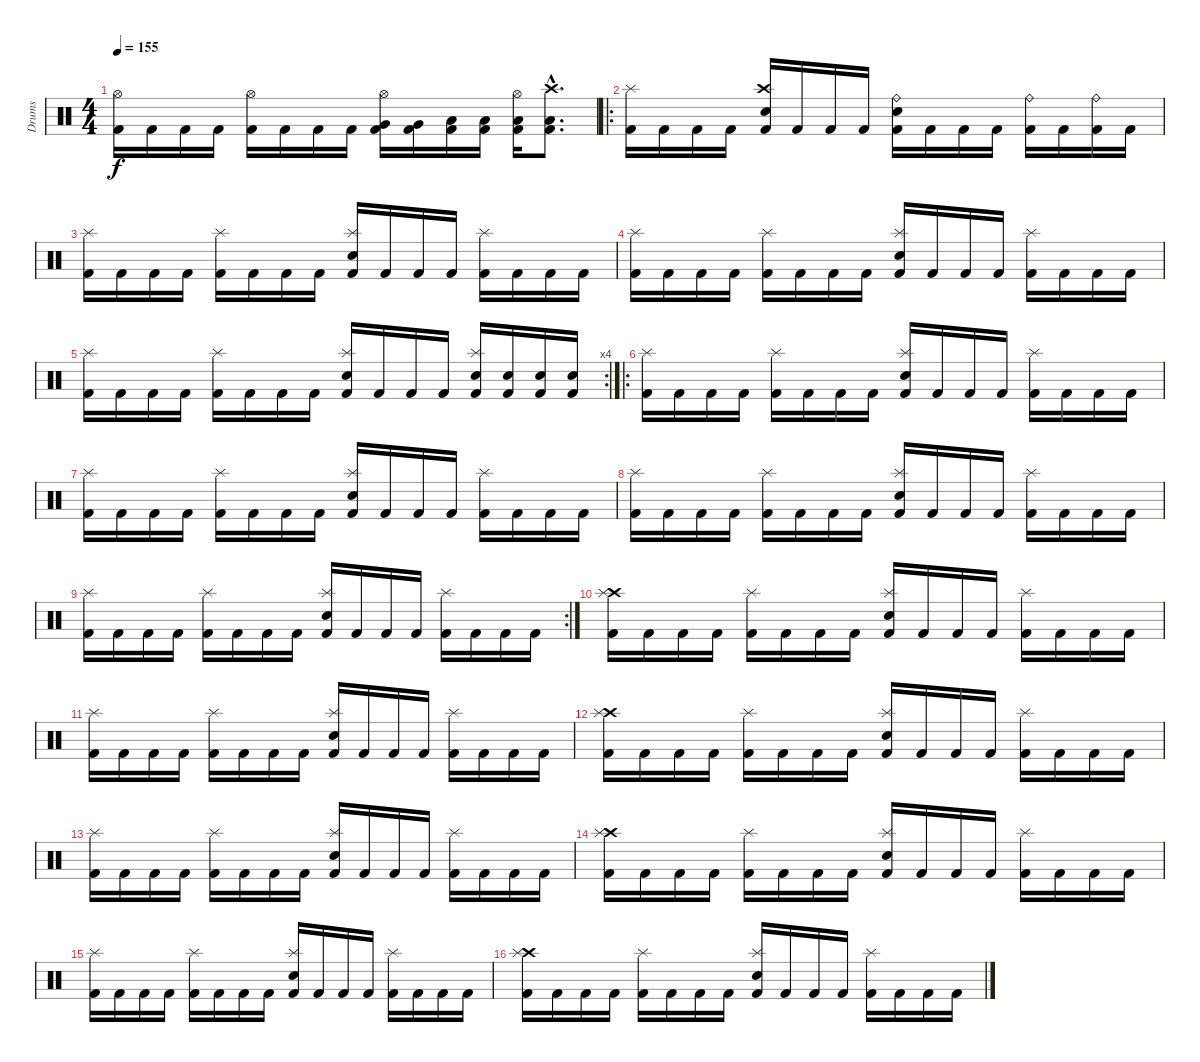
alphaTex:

\track ("Drums" "Drums") {instrument percussion}
\staff {score}
\articulation defaults
\ts (4 4)
\tempo 155
\clef neutral
\ks c
("Hi-Hat (open)" "Kick (hit) 2").16{dy f} "Kick (hit) 2".16 "Kick (hit) 2".16 "Kick (hit) 2".16 ("Hi-Hat (open)" "Kick (hit) 2").16 "Kick (hit) 2".16 "Kick (hit) 2".16 "Kick (hit) 2".16 ("Hi-Hat (open)" "Very Low Tom (hit)" "Kick (hit) 2").16 ("Very Low Tom (hit)" "Kick (hit) 2").16 ("Low Tom (hit)" "Kick (hit) 2").16 ("Low Tom (hit)" "Kick (hit) 2").16 ("Hi-Hat (open)" "Low Floor Tom (hit)" "Kick (hit) 2").16 ("Crash high (hit)"{hac} "Low Floor Tom (hit)"{hac} "Kick (hit) 2"{hac}).8{d} |
\ro
("Splash (hit)" "Kick (hit) 2").16 "Kick (hit) 2".16 "Kick (hit) 2".16 "Kick (hit) 2".16 ("Crash high (hit)" "Electric Snare (hit)" "Kick (hit) 2").16 "Kick (hit) 2".16 "Kick (hit) 2".16 "Kick (hit) 2".16 ("Ride (bell)" "Electric Snare (hit)" "Kick (hit) 2").16 "Kick (hit) 2".16 "Kick (hit) 2".16 "Kick (hit) 2".16 ("Ride (bell)" "Kick (hit) 2").16 "Kick (hit) 2".16 ("Ride (bell)" "Kick (hit) 2").16 "Kick (hit) 2".16 |
("Splash (hit)" "Kick (hit) 2").16 "Kick (hit) 2".16 "Kick (hit) 2".16 "Kick (hit) 2".16 ("Splash (hit)" "Kick (hit) 2").16 "Kick (hit) 2".16 "Kick (hit) 2".16 "Kick (hit) 2".16 ("Splash (hit)" "Electric Snare (hit)" "Kick (hit) 2").16 "Kick (hit) 2".16 "Kick (hit) 2".16 "Kick (hit) 2".16 ("Splash (hit)" "Kick (hit) 2").16 "Kick (hit) 2".16 "Kick (hit) 2".16 "Kick (hit) 2".16 |
("Splash (hit)" "Kick (hit) 2").16 "Kick (hit) 2".16 "Kick (hit) 2".16 "Kick (hit) 2".16 ("Splash (hit)" "Kick (hit) 2").16 "Kick (hit) 2".16 "Kick (hit) 2".16 "Kick (hit) 2".16 ("Splash (hit)" "Electric Snare (hit)" "Kick (hit) 2").16 "Kick (hit) 2".16 "Kick (hit) 2".16 "Kick (hit) 2".16 ("Splash (hit)" "Kick (hit) 2").16 "Kick (hit) 2".16 "Kick (hit) 2".16 "Kick (hit) 2".16 |
\rc 4
("Splash (hit)" "Kick (hit) 2").16 "Kick (hit) 2".16 "Kick (hit) 2".16 "Kick (hit) 2".16 ("Splash (hit)" "Kick (hit) 2").16 "Kick (hit) 2".16 "Kick (hit) 2".16 "Kick (hit) 2".16 ("Splash (hit)" "Electric Snare (hit)" "Kick (hit) 2").16 "Kick (hit) 2".16 "Kick (hit) 2".16 "Kick (hit) 2".16 ("Splash (hit)" "Electric Snare (hit)" "Kick (hit) 2").16 ("Electric Snare (hit)" "Kick (hit) 2").16 ("Electric Snare (hit)" "Kick (hit) 2").16 ("Electric Snare (hit)" "Kick (hit) 2").16 |
\ro
("Splash (hit)" "Kick (hit) 2").16 "Kick (hit) 2".16 "Kick (hit) 2".16 "Kick (hit) 2".16 ("Splash (hit)" "Kick (hit) 2").16 "Kick (hit) 2".16 "Kick (hit) 2".16 "Kick (hit) 2".16 ("Splash (hit)" "Electric Snare (hit)" "Kick (hit) 2").16 "Kick (hit) 2".16 "Kick (hit) 2".16 "Kick (hit) 2".16 ("Splash (hit)" "Kick (hit) 2").16 "Kick (hit) 2".16 "Kick (hit) 2".16 "Kick (hit) 2".16 |
("Splash (hit)" "Kick (hit) 2").16 "Kick (hit) 2".16 "Kick (hit) 2".16 "Kick (hit) 2".16 ("Splash (hit)" "Kick (hit) 2").16 "Kick (hit) 2".16 "Kick (hit) 2".16 "Kick (hit) 2".16 ("Splash (hit)" "Electric Snare (hit)" "Kick (hit) 2").16 "Kick (hit) 2".16 "Kick (hit) 2".16 "Kick (hit) 2".16 ("Splash (hit)" "Kick (hit) 2").16 "Kick (hit) 2".16 "Kick (hit) 2".16 "Kick (hit) 2".16 |
("Splash (hit)" "Kick (hit) 2").16 "Kick (hit) 2".16 "Kick (hit) 2".16 "Kick (hit) 2".16 ("Splash (hit)" "Kick (hit) 2").16 "Kick (hit) 2".16 "Kick (hit) 2".16 "Kick (hit) 2".16 ("Splash (hit)" "Electric Snare (hit)" "Kick (hit) 2").16 "Kick (hit) 2".16 "Kick (hit) 2".16 "Kick (hit) 2".16 ("Splash (hit)" "Kick (hit) 2").16 "Kick (hit) 2".16 "Kick (hit) 2".16 "Kick (hit) 2".16 |
\rc 2
("Splash (hit)" "Kick (hit) 2").16 "Kick (hit) 2".16 "Kick (hit) 2".16 "Kick (hit) 2".16 ("Splash (hit)" "Kick (hit) 2").16 "Kick (hit) 2".16 "Kick (hit) 2".16 "Kick (hit) 2".16 ("Splash (hit)" "Electric Snare (hit)" "Kick (hit) 2").16 "Kick (hit) 2".16 "Kick (hit) 2".16 "Kick (hit) 2".16 ("Splash (hit)" "Kick (hit) 2").16 "Kick (hit) 2".16 "Kick (hit) 2".16 "Kick (hit) 2".16 |
("Crash high (hit)" "Splash (hit)" "Kick (hit) 2").16 "Kick (hit) 2".16 "Kick (hit) 2".16 "Kick (hit) 2".16 ("Splash (hit)" "Kick (hit) 2").16 "Kick (hit) 2".16 "Kick (hit) 2".16 "Kick (hit) 2".16 ("Splash (hit)" "Electric Snare (hit)" "Kick (hit) 2").16 "Kick (hit) 2".16 "Kick (hit) 2".16 "Kick (hit) 2".16 ("Splash (hit)" "Kick (hit) 2").16 "Kick (hit) 2".16 "Kick (hit) 2".16 "Kick (hit) 2".16 |
("Splash (hit)" "Kick (hit) 2").16 "Kick (hit) 2".16 "Kick (hit) 2".16 "Kick (hit) 2".16 ("Splash (hit)" "Kick (hit) 2").16 "Kick (hit) 2".16 "Kick (hit) 2".16 "Kick (hit) 2".16 ("Splash (hit)" "Electric Snare (hit)" "Kick (hit) 2").16 "Kick (hit) 2".16 "Kick (hit) 2".16 "Kick (hit) 2".16 ("Splash (hit)" "Kick (hit) 2").16 "Kick (hit) 2".16 "Kick (hit) 2".16 "Kick (hit) 2".16 |
("Crash high (hit)" "Splash (hit)" "Kick (hit) 2").16 "Kick (hit) 2".16 "Kick (hit) 2".16 "Kick (hit) 2".16 ("Splash (hit)" "Kick (hit) 2").16 "Kick (hit) 2".16 "Kick (hit) 2".16 "Kick (hit) 2".16 ("Splash (hit)" "Electric Snare (hit)" "Kick (hit) 2").16 "Kick (hit) 2".16 "Kick (hit) 2".16 "Kick (hit) 2".16 ("Splash (hit)" "Kick (hit) 2").16 "Kick (hit) 2".16 "Kick (hit) 2".16 "Kick (hit) 2".16 |
("Splash (hit)" "Kick (hit) 2").16 "Kick (hit) 2".16 "Kick (hit) 2".16 "Kick (hit) 2".16 ("Splash (hit)" "Kick (hit) 2").16 "Kick (hit) 2".16 "Kick (hit) 2".16 "Kick (hit) 2".16 ("Splash (hit)" "Electric Snare (hit)" "Kick (hit) 2").16 "Kick (hit) 2".16 "Kick (hit) 2".16 "Kick (hit) 2".16 ("Splash (hit)" "Kick (hit) 2").16 "Kick (hit) 2".16 "Kick (hit) 2".16 "Kick (hit) 2".16 |
("Crash high (hit)" "Splash (hit)" "Kick (hit) 2").16 "Kick (hit) 2".16 "Kick (hit) 2".16 "Kick (hit) 2".16 ("Splash (hit)" "Kick (hit) 2").16 "Kick (hit) 2".16 "Kick (hit) 2".16 "Kick (hit) 2".16 ("Splash (hit)" "Electric Snare (hit)" "Kick (hit) 2").16 "Kick (hit) 2".16 "Kick (hit) 2".16 "Kick (hit) 2".16 ("Splash (hit)" "Kick (hit) 2").16 "Kick (hit) 2".16 "Kick (hit) 2".16 "Kick (hit) 2".16 |
("Splash (hit)" "Kick (hit) 2").16 "Kick (hit) 2".16 "Kick (hit) 2".16 "Kick (hit) 2".16 ("Splash (hit)" "Kick (hit) 2").16 "Kick (hit) 2".16 "Kick (hit) 2".16 "Kick (hit) 2".16 ("Splash (hit)" "Electric Snare (hit)" "Kick (hit) 2").16 "Kick (hit) 2".16 "Kick (hit) 2".16 "Kick (hit) 2".16 ("Splash (hit)" "Kick (hit) 2").16 "Kick (hit) 2".16 "Kick (hit) 2".16 "Kick (hit) 2".16 |
("Crash high (hit)" "Splash (hit)" "Kick (hit) 2").16 "Kick (hit) 2".16 "Kick (hit) 2".16 "Kick (hit) 2".16 ("Splash (hit)" "Kick (hit) 2").16 "Kick (hit) 2".16 "Kick (hit) 2".16 "Kick (hit) 2".16 ("Splash (hit)" "Electric Snare (hit)" "Kick (hit) 2").16 "Kick (hit) 2".16 "Kick (hit) 2".16 "Kick (hit) 2".16 ("Splash (hit)" "Kick (hit) 2").16 "Kick (hit) 2".16 "Kick (hit) 2".16 "Kick (hit) 2".16
